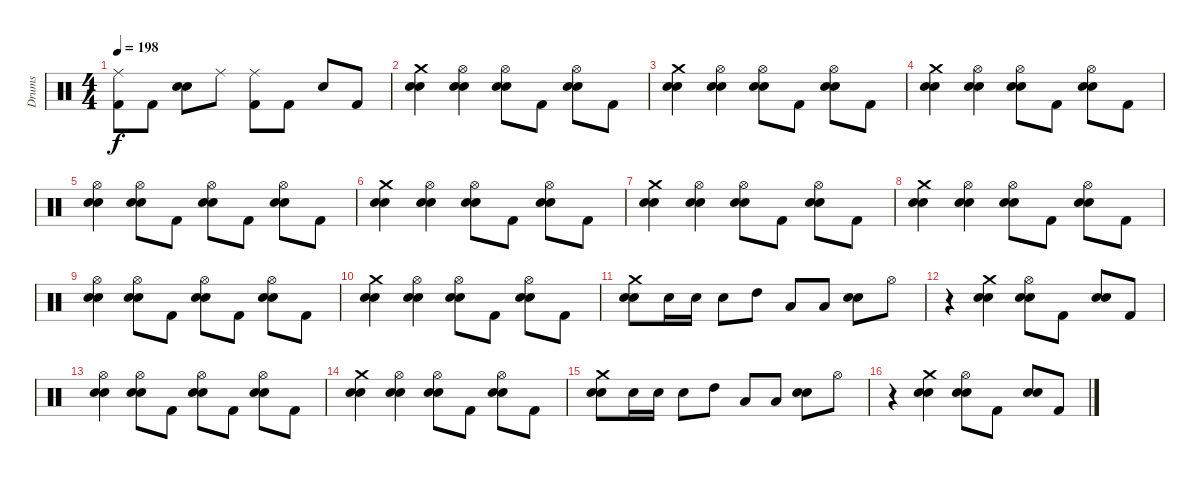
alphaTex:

\track ("Drums" "Drums") {instrument percussion}
\staff {score}
\articulation defaults
\ts (4 4)
\tempo 198
\clef neutral
\ks c
("Ride (middle)" "Kick (hit) 2").8{dy f} "Kick (hit) 2".8 ("Electric Snare (hit)" "Snare (hit) 2").8 "Ride (middle)".8 ("Ride (middle)" "Kick (hit) 2").8 "Kick (hit) 2".8 "Snare (hit) 2".8 "Kick (hit) 2".8 |
("Crash medium (hit)" "Electric Snare (hit)" "Snare (hit) 2").4 ("Hi-Hat (open)" "Electric Snare (hit)" "Snare (hit) 2").4 ("Hi-Hat (open)" "Electric Snare (hit)" "Snare (hit) 2").8 "Kick (hit) 2".8 ("Hi-Hat (open)" "Electric Snare (hit)" "Snare (hit) 2").8 "Kick (hit) 2".8 |
("Crash medium (hit)" "Electric Snare (hit)" "Snare (hit) 2").4 ("Hi-Hat (open)" "Electric Snare (hit)" "Snare (hit) 2").4 ("Hi-Hat (open)" "Electric Snare (hit)" "Snare (hit) 2").8 "Kick (hit) 2".8 ("Hi-Hat (open)" "Electric Snare (hit)" "Snare (hit) 2").8 "Kick (hit) 2".8 |
("Crash medium (hit)" "Electric Snare (hit)" "Snare (hit) 2").4 ("Hi-Hat (open)" "Electric Snare (hit)" "Snare (hit) 2").4 ("Hi-Hat (open)" "Electric Snare (hit)" "Snare (hit) 2").8 "Kick (hit) 2".8 ("Hi-Hat (open)" "Electric Snare (hit)" "Snare (hit) 2").8 "Kick (hit) 2".8 |
("Hi-Hat (open)" "Electric Snare (hit)" "Snare (hit) 2").4 ("Hi-Hat (open)" "Electric Snare (hit)" "Snare (hit) 2").8 "Kick (hit) 2".8 ("Hi-Hat (open)" "Electric Snare (hit)" "Snare (hit) 2").8 "Kick (hit) 2".8 ("Hi-Hat (open)" "Electric Snare (hit)" "Snare (hit) 2").8 "Kick (hit) 2".8 |
("Crash medium (hit)" "Electric Snare (hit)" "Snare (hit) 2").4 ("Hi-Hat (open)" "Electric Snare (hit)" "Snare (hit) 2").4 ("Hi-Hat (open)" "Electric Snare (hit)" "Snare (hit) 2").8 "Kick (hit) 2".8 ("Hi-Hat (open)" "Electric Snare (hit)" "Snare (hit) 2").8 "Kick (hit) 2".8 |
("Crash medium (hit)" "Electric Snare (hit)" "Snare (hit) 2").4 ("Hi-Hat (open)" "Electric Snare (hit)" "Snare (hit) 2").4 ("Hi-Hat (open)" "Electric Snare (hit)" "Snare (hit) 2").8 "Kick (hit) 2".8 ("Hi-Hat (open)" "Electric Snare (hit)" "Snare (hit) 2").8 "Kick (hit) 2".8 |
("Crash medium (hit)" "Electric Snare (hit)" "Snare (hit) 2").4 ("Hi-Hat (open)" "Electric Snare (hit)" "Snare (hit) 2").4 ("Hi-Hat (open)" "Electric Snare (hit)" "Snare (hit) 2").8 "Kick (hit) 2".8 ("Hi-Hat (open)" "Electric Snare (hit)" "Snare (hit) 2").8 "Kick (hit) 2".8 |
("Hi-Hat (open)" "Electric Snare (hit)" "Snare (hit) 2").4 ("Hi-Hat (open)" "Electric Snare (hit)" "Snare (hit) 2").8 "Kick (hit) 2".8 ("Hi-Hat (open)" "Electric Snare (hit)" "Snare (hit) 2").8 "Kick (hit) 2".8 ("Hi-Hat (open)" "Electric Snare (hit)" "Snare (hit) 2").8 "Kick (hit) 2".8 |
("Crash medium (hit)" "Electric Snare (hit)" "Snare (hit) 2").4 ("Hi-Hat (open)" "Electric Snare (hit)" "Snare (hit) 2").4 ("Hi-Hat (open)" "Electric Snare (hit)" "Snare (hit) 2").8 "Kick (hit) 2".8 ("Hi-Hat (open)" "Electric Snare (hit)" "Snare (hit) 2").8 "Kick (hit) 2".8 |
("Crash medium (hit)" "Electric Snare (hit)" "Snare (hit) 2").8 "Electric Snare (hit)".16 "Electric Snare (hit)".16 "Electric Snare (hit)".8 "High Tom (hit)".8 "Low Floor Tom (hit)".8 "Low Floor Tom (hit)".8 ("Electric Snare (hit)" "Snare (hit) 2").8 "Hi-Hat (open)".8 |
r.4 ("Crash medium (hit)" "Electric Snare (hit)" "Snare (hit) 2").4 ("Hi-Hat (open)" "Electric Snare (hit)" "Snare (hit) 2").8 "Kick (hit) 2".8 ("Electric Snare (hit)" "Snare (hit) 2").8 "Kick (hit) 2".8 |
("Hi-Hat (open)" "Electric Snare (hit)" "Snare (hit) 2").4 ("Hi-Hat (open)" "Electric Snare (hit)" "Snare (hit) 2").8 "Kick (hit) 2".8 ("Hi-Hat (open)" "Electric Snare (hit)" "Snare (hit) 2").8 "Kick (hit) 2".8 ("Hi-Hat (open)" "Electric Snare (hit)" "Snare (hit) 2").8 "Kick (hit) 2".8 |
("Crash medium (hit)" "Electric Snare (hit)" "Snare (hit) 2").4 ("Hi-Hat (open)" "Electric Snare (hit)" "Snare (hit) 2").4 ("Hi-Hat (open)" "Electric Snare (hit)" "Snare (hit) 2").8 "Kick (hit) 2".8 ("Hi-Hat (open)" "Electric Snare (hit)" "Snare (hit) 2").8 "Kick (hit) 2".8 |
("Crash medium (hit)" "Electric Snare (hit)" "Snare (hit) 2").8 "Electric Snare (hit)".16 "Electric Snare (hit)".16 "Electric Snare (hit)".8 "High Tom (hit)".8 "Low Floor Tom (hit)".8 "Low Floor Tom (hit)".8 ("Electric Snare (hit)" "Snare (hit) 2").8 "Hi-Hat (open)".8 |
r.4 ("Crash medium (hit)" "Electric Snare (hit)" "Snare (hit) 2").4 ("Hi-Hat (open)" "Electric Snare (hit)" "Snare (hit) 2").8 "Kick (hit) 2".8 ("Electric Snare (hit)" "Snare (hit) 2").8 "Kick (hit) 2".8
